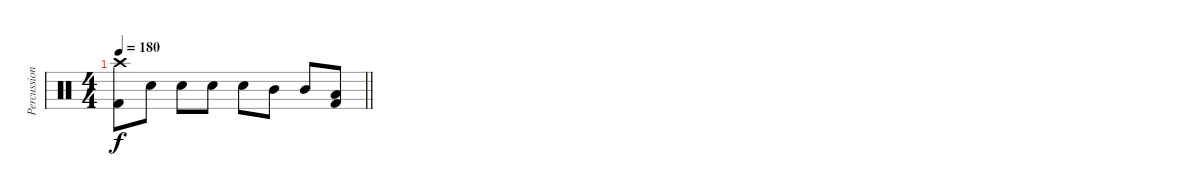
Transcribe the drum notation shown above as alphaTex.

\track ("Percussion" "Percussion") {instrument percussion}
\staff {score}
\articulation defaults
\ts (4 4)
\tempo 180
\clef neutral
\barLineRight lightlight
\ks c
("Crash high (hit)" "Kick (hit) 2").8{dy f} "Snare (hit) 2".8 "Snare (hit) 2".8 "Snare (hit) 2".8 "Snare (hit) 2".8 "Mid Tom (hit)".8 "Mid Tom (hit)".8 ("Kick (hit) 2" "Low Tom (hit)").8
